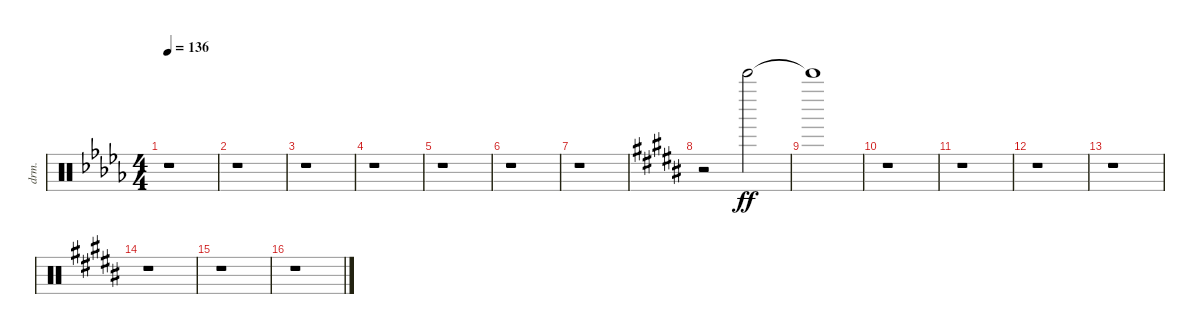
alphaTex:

\bracketExtendMode nobrackets
\track ("Wind Chimes" "drm.") {instrument percussion}
\staff {score}
\articulation defaults
\ts (4 4)
\tempo 136
\clef neutral
\ks db
r.1{dy ff beam Down} |
r.1{beam Down} |
r.1{beam Down} |
r.1{beam Down} |
r.1{beam Down} |
r.1{beam Down} |
r.1{beam Down} |
\ks b
r.2{beam Down} "Bell Tree (hit)"{acc forcenatural}.2{beam Down} |
"Bell Tree (hit)"{t acc forcenatural}.1{beam Down} |
r.1{beam Down} |
r.1{beam Down} |
r.1{beam Down} |
r.1{beam Down} |
r.1{beam Down} |
r.1{beam Down} |
r.1{beam Down}
